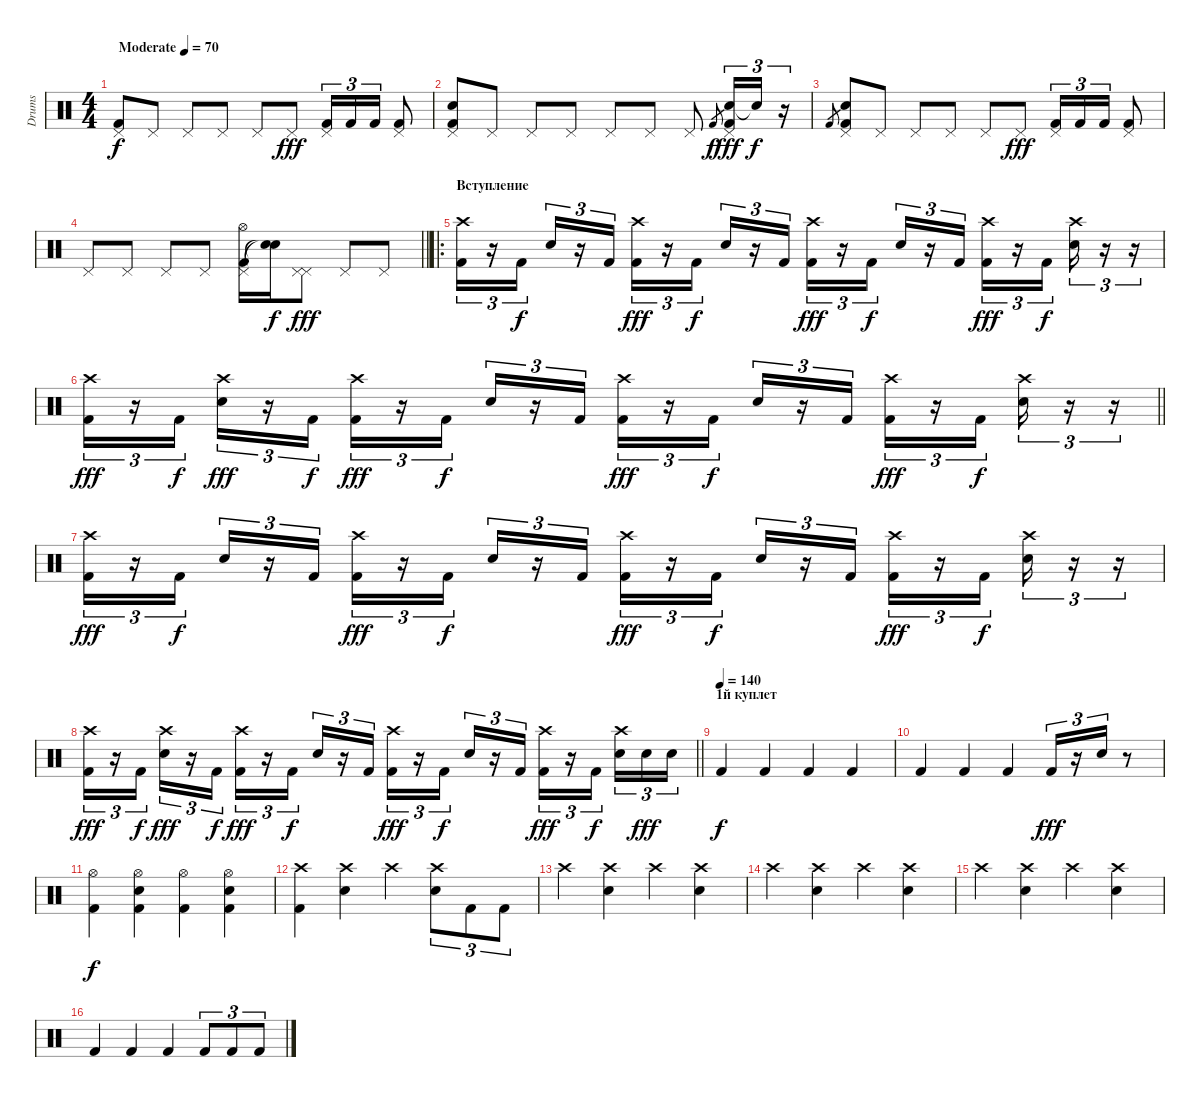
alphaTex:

\track ("Drums" "Drums") {instrument percussion}
\staff {score}
\articulation defaults
\ts (4 4)
\tempo (70 "Moderate")
\clef neutral
\ks c
("Pedal Hi-Hat (hit)" "Kick (hit) 2").8{dy f} "Pedal Hi-Hat (hit)".8 "Pedal Hi-Hat (hit)".8 "Pedal Hi-Hat (hit)".8 "Pedal Hi-Hat (hit)".8 "Pedal Hi-Hat (hit)".8{dy fff} ("Pedal Hi-Hat (hit)" "Kick (hit) 2").16{tu (3 2)} "Kick (hit) 2".16{tu (3 2)} "Kick (hit) 2".16{tu (3 2)} ("Pedal Hi-Hat (hit)" "Kick (hit) 2").8 |
("Electric Snare (hit)" "Pedal Hi-Hat (hit)" "Kick (hit) 2").8 "Pedal Hi-Hat (hit)".8 "Pedal Hi-Hat (hit)".8 "Pedal Hi-Hat (hit)".8 "Pedal Hi-Hat (hit)".8 "Pedal Hi-Hat (hit)".8 "Pedal Hi-Hat (hit)".8 "Kick (hit) 2".8{gr dy f} ("Electric Snare (hit)" "Pedal Hi-Hat (hit)" "Kick (hit) 2").16{tu (3 2) dy fff} "Snare (hit)"{t}.16{tu (3 2) dy f} r.16{tu (3 2)} |
"Kick (hit) 2".8{gr} ("Electric Snare (hit)" "Pedal Hi-Hat (hit)" "Kick (hit) 2").8 "Pedal Hi-Hat (hit)".8 "Pedal Hi-Hat (hit)".8 "Pedal Hi-Hat (hit)".8 "Pedal Hi-Hat (hit)".8 "Pedal Hi-Hat (hit)".8{dy fff} ("Pedal Hi-Hat (hit)" "Kick (hit) 2").16{tu (3 2)} "Kick (hit) 2".16{tu (3 2)} "Kick (hit) 2".16{tu (3 2)} ("Pedal Hi-Hat (hit)" "Kick (hit) 2").8 |
\barLineRight lightlight "Pedal Hi-Hat (hit)".8 "Pedal Hi-Hat (hit)".8 "Pedal Hi-Hat (hit)".8 "Pedal Hi-Hat (hit)".8
("Kick (hit) 2" "Pedal Hi-Hat (hit)" "Hi-Hat (open)").16 ("Snare (hit)"{t} "Snare (hit)"{t}).16{dy f} ("Pedal Hi-Hat (hit)" "Pedal Hi-Hat (hit)").8{dy fff} "Pedal Hi-Hat (hit)".8 "Pedal Hi-Hat (hit)".8 |
\ro
\section ("" "Вступление")
("Kick (hit) 2" "Crash high (hit)").16{tu (3 2)} r.16{tu (3 2)} "Kick (hit) 2".16{tu (3 2) dy f} "Electric Snare (hit)".16{tu (3 2)} r.16{tu (3 2)} "Kick (hit) 2".16{tu (3 2)} ("Kick (hit) 2" "Crash high (hit)").16{tu (3 2) dy fff} r.16{tu (3 2)} "Kick (hit) 2".16{tu (3 2) dy f} "Electric Snare (hit)".16{tu (3 2)} r.16{tu (3 2)} "Kick (hit) 2".16{tu (3 2)} ("Kick (hit) 2" "Crash high (hit)").16{tu (3 2) dy fff} r.16{tu (3 2)} "Kick (hit) 2".16{tu (3 2) dy f} "Electric Snare (hit)".16{tu (3 2)} r.16{tu (3 2)} "Kick (hit) 2".16{tu (3 2)} ("Kick (hit) 2" "Crash high (hit)").16{tu (3 2) dy fff} r.16{tu (3 2)} "Kick (hit) 2".16{tu (3 2) dy f} ("Electric Snare (hit)" "Crash high (hit)").16{tu (3 2)} r.16{tu (3 2)} r.16{tu (3 2)} |
\barLineRight lightlight
("Kick (hit) 2" "Crash high (hit)").16{tu (3 2) dy fff} r.16{tu (3 2)} "Kick (hit) 2".16{tu (3 2) dy f} ("Electric Snare (hit)" "Crash high (hit)").16{tu (3 2) dy fff} r.16{tu (3 2)} "Kick (hit) 2".16{tu (3 2) dy f} ("Kick (hit) 2" "Crash high (hit)").16{tu (3 2) dy fff} r.16{tu (3 2)} "Kick (hit) 2".16{tu (3 2) dy f} "Electric Snare (hit)".16{tu (3 2)} r.16{tu (3 2)} "Kick (hit) 2".16{tu (3 2)} ("Kick (hit) 2" "Crash high (hit)").16{tu (3 2) dy fff} r.16{tu (3 2)} "Kick (hit) 2".16{tu (3 2) dy f} "Electric Snare (hit)".16{tu (3 2)} r.16{tu (3 2)} "Kick (hit) 2".16{tu (3 2)} ("Kick (hit) 2" "Crash high (hit)").16{tu (3 2) dy fff} r.16{tu (3 2)} "Kick (hit) 2".16{tu (3 2) dy f} ("Electric Snare (hit)" "Crash high (hit)").16{tu (3 2)} r.16{tu (3 2)} r.16{tu (3 2)} |
("Kick (hit) 2" "Crash high (hit)").16{tu (3 2) dy fff} r.16{tu (3 2)} "Kick (hit) 2".16{tu (3 2) dy f} "Electric Snare (hit)".16{tu (3 2)} r.16{tu (3 2)} "Kick (hit) 2".16{tu (3 2)} ("Kick (hit) 2" "Crash high (hit)").16{tu (3 2) dy fff} r.16{tu (3 2)} "Kick (hit) 2".16{tu (3 2) dy f} "Electric Snare (hit)".16{tu (3 2)} r.16{tu (3 2)} "Kick (hit) 2".16{tu (3 2)} ("Kick (hit) 2" "Crash high (hit)").16{tu (3 2) dy fff} r.16{tu (3 2)} "Kick (hit) 2".16{tu (3 2) dy f} "Electric Snare (hit)".16{tu (3 2)} r.16{tu (3 2)} "Kick (hit) 2".16{tu (3 2)} ("Kick (hit) 2" "Crash high (hit)").16{tu (3 2) dy fff} r.16{tu (3 2)} "Kick (hit) 2".16{tu (3 2) dy f} ("Electric Snare (hit)" "Crash high (hit)").16{tu (3 2)} r.16{tu (3 2)} r.16{tu (3 2)} |
\barLineRight lightlight
("Kick (hit) 2" "Crash high (hit)").16{tu (3 2) dy fff} r.16{tu (3 2)} "Kick (hit) 2".16{tu (3 2) dy f} ("Electric Snare (hit)" "Crash high (hit)").16{tu (3 2) dy fff} r.16{tu (3 2)} "Kick (hit) 2".16{tu (3 2) dy f} ("Kick (hit) 2" "Crash high (hit)").16{tu (3 2) dy fff} r.16{tu (3 2)} "Kick (hit) 2".16{tu (3 2) dy f} "Electric Snare (hit)".16{tu (3 2)} r.16{tu (3 2)} "Kick (hit) 2".16{tu (3 2)} ("Kick (hit) 2" "Crash high (hit)").16{tu (3 2) dy fff} r.16{tu (3 2)} "Kick (hit) 2".16{tu (3 2) dy f} "Electric Snare (hit)".16{tu (3 2)} r.16{tu (3 2)} "Kick (hit) 2".16{tu (3 2)} ("Kick (hit) 2" "Crash high (hit)").16{tu (3 2) dy fff} r.16{tu (3 2)} "Kick (hit) 2".16{tu (3 2) dy f beam splitsecondary} ("Electric Snare (hit)" "Crash high (hit)").16{tu (3 2)} "Electric Snare (hit)".16{tu (3 2) dy fff} "Electric Snare (hit)".16{tu (3 2)} |
\section ("" "1й куплет")
\tempo (140)
"Kick (hit) 2".4{dy f} "Kick (hit) 2".4 "Kick (hit) 2".4 "Kick (hit) 2".4 |
"Kick (hit) 2".4 "Kick (hit) 2".4 "Kick (hit) 2".4 "Kick (hit) 2".16{tu (3 2) dy fff} r.16{tu (3 2)} "Electric Snare (hit)".16{tu (3 2)} r.8 |
("Hi-Hat (open)" "Kick (hit) 2").4{dy f} ("Electric Snare (hit)" "Hi-Hat (open)" "Kick (hit) 2").4 ("Hi-Hat (open)" "Kick (hit) 2").4 ("Electric Snare (hit)" "Hi-Hat (open)" "Kick (hit) 2").4 |
("Crash high (hit)" "Kick (hit) 2").4 ("Crash high (hit)" "Electric Snare (hit)").4 "Crash high (hit)".4 ("Crash high (hit)" "Electric Snare (hit)").8{tu (3 2)} "Kick (hit) 2".8{tu (3 2)} "Kick (hit) 2".8{tu (3 2)} |
"Crash high (hit)".4 ("Crash high (hit)" "Electric Snare (hit)").4 "Crash high (hit)".4 ("Crash high (hit)" "Electric Snare (hit)").4 |
"Crash high (hit)".4 ("Electric Snare (hit)" "Crash high (hit)").4 "Crash high (hit)".4 ("Electric Snare (hit)" "Crash high (hit)").4 |
"Crash high (hit)".4 ("Electric Snare (hit)" "Crash high (hit)").4 "Crash high (hit)".4 ("Electric Snare (hit)" "Crash high (hit)").4 |
"Kick (hit) 2".4 "Kick (hit) 2".4 "Kick (hit) 2".4 "Kick (hit) 2".8{tu (3 2)} "Kick (hit) 2".8{tu (3 2)} "Kick (hit) 2".8{tu (3 2)}
